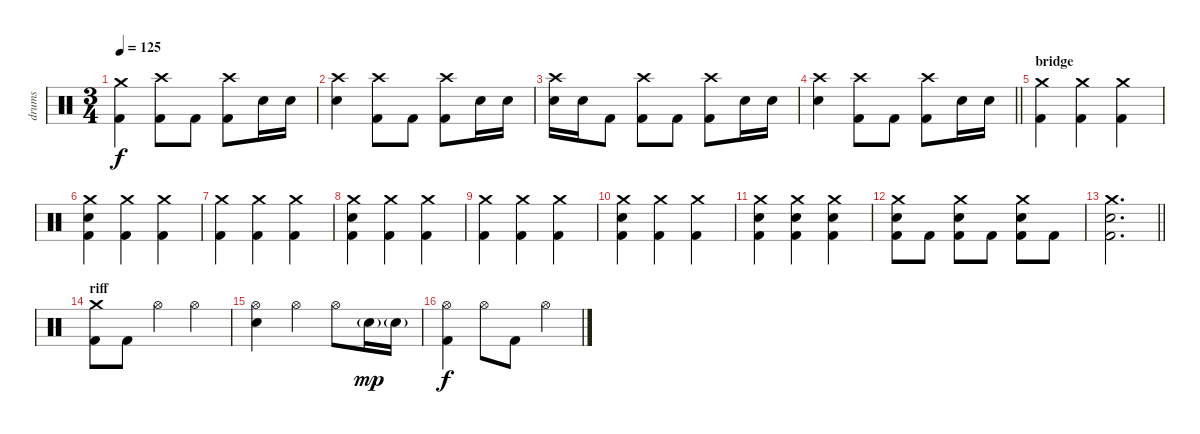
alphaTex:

\track ("drums" "drums") {instrument percussion}
\staff {score}
\articulation defaults
\ts (3 4)
\tempo 125
\clef neutral
\ks c
("Crash medium (hit)" "Kick (hit) 2").4{dy f} ("Crash high (hit)" "Kick (hit) 2").8 "Kick (hit) 2".8 ("Crash high (hit)" "Kick (hit) 2").8 "Electric Snare (hit)".16 "Electric Snare (hit)".16 |
("Crash high (hit)" "Electric Snare (hit)").4 ("Crash high (hit)" "Kick (hit) 2").8 "Kick (hit) 2".8 ("Crash high (hit)" "Kick (hit) 2").8 "Electric Snare (hit)".16 "Electric Snare (hit)".16 |
("Crash high (hit)" "Electric Snare (hit)").16 "Electric Snare (hit)".16 "Kick (hit) 2".8 ("Crash high (hit)" "Kick (hit) 2").8 "Kick (hit) 2".8 ("Crash high (hit)" "Kick (hit) 2").8 "Electric Snare (hit)".16 "Electric Snare (hit)".16 |
\barLineRight lightlight
("Crash high (hit)" "Electric Snare (hit)").4 ("Crash high (hit)" "Kick (hit) 2").8 "Kick (hit) 2".8 ("Crash high (hit)" "Kick (hit) 2").8 "Electric Snare (hit)".16 "Electric Snare (hit)".16 |
\section ("" "bridge")
("Crash medium (hit)" "Kick (hit) 2").4 ("Crash medium (hit)" "Kick (hit) 2").4 ("Crash medium (hit)" "Kick (hit) 2").4 |
("Crash medium (hit)" "Electric Snare (hit)" "Kick (hit) 2").4 ("Crash medium (hit)" "Kick (hit) 2").4 ("Crash medium (hit)" "Kick (hit) 2").4 |
("Crash medium (hit)" "Kick (hit) 2").4 ("Crash medium (hit)" "Kick (hit) 2").4 ("Crash medium (hit)" "Kick (hit) 2").4 |
("Crash medium (hit)" "Electric Snare (hit)" "Kick (hit) 2").4 ("Crash medium (hit)" "Kick (hit) 2").4 ("Crash medium (hit)" "Kick (hit) 2").4 |
("Crash medium (hit)" "Kick (hit) 2").4 ("Crash medium (hit)" "Kick (hit) 2").4 ("Crash medium (hit)" "Kick (hit) 2").4 |
("Crash medium (hit)" "Electric Snare (hit)" "Kick (hit) 2").4 ("Crash medium (hit)" "Kick (hit) 2").4 ("Crash medium (hit)" "Kick (hit) 2").4 |
("Crash medium (hit)" "Electric Snare (hit)" "Kick (hit) 2").4 ("Crash medium (hit)" "Electric Snare (hit)" "Kick (hit) 2").4 ("Crash medium (hit)" "Electric Snare (hit)" "Kick (hit) 2").4 |
("Crash medium (hit)" "Electric Snare (hit)" "Kick (hit) 2").8 "Kick (hit) 2".8 ("Crash medium (hit)" "Electric Snare (hit)" "Kick (hit) 2").8 "Kick (hit) 2".8 ("Crash medium (hit)" "Electric Snare (hit)" "Kick (hit) 2").8 "Kick (hit) 2".8 |
\barLineRight lightlight
("Crash medium (hit)" "Electric Snare (hit)" "Kick (hit) 2").2{d} |
\section ("" "riff")
("Crash medium (hit)" "Kick (hit) 2").8 "Kick (hit) 2".8 "Hi-Hat (open)".4 "Hi-Hat (open)".4 |
("Hi-Hat (open)" "Electric Snare (hit)").4 "Hi-Hat (open)".4 "Hi-Hat (open)".8 "Electric Snare (hit)"{g}.16{dy mp} "Electric Snare (hit)"{g}.16 |
("Hi-Hat (open)" "Kick (hit) 2").4{dy f} "Hi-Hat (open)".8 "Kick (hit) 2".8 "Hi-Hat (open)".4
